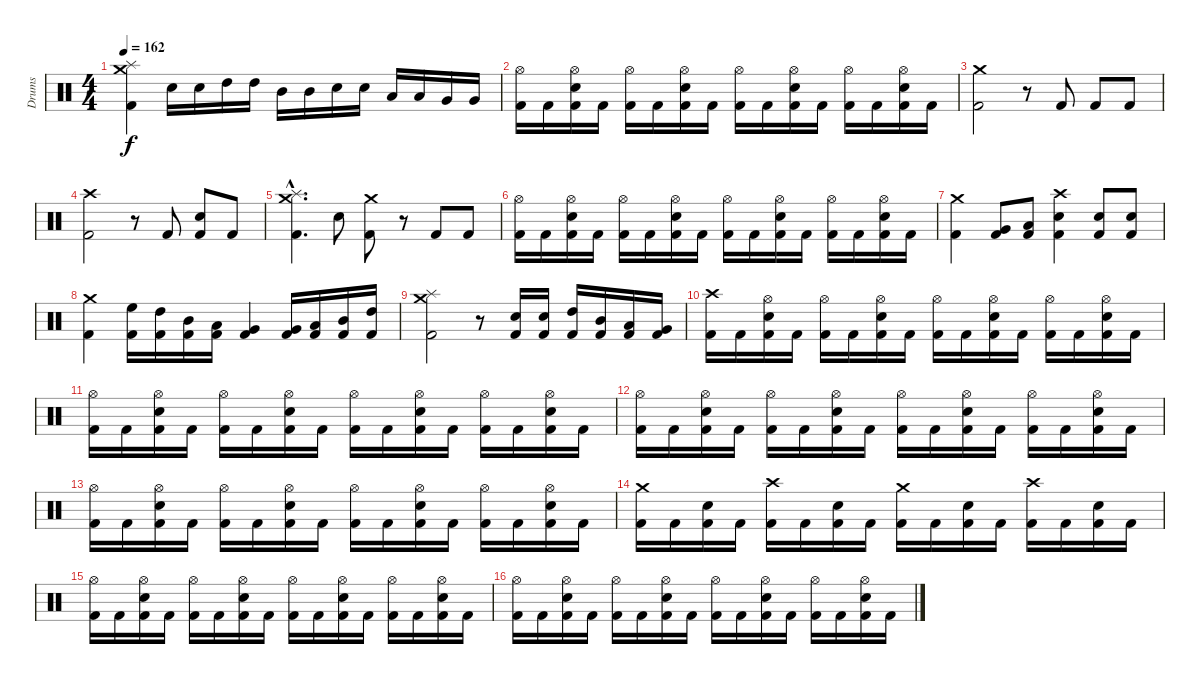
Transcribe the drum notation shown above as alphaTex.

\track ("Drums" "Drums") {instrument percussion}
\staff {score}
\articulation defaults
\ts (4 4)
\tempo 162
\clef neutral
\ks c
("Kick (hit) 2" "Crash medium (hit)" "Splash (hit)").4{dy f} "Snare (hit) 2".16 "Snare (hit) 2".16 "High Tom (hit)".16 "High Tom (hit)".16 "Mid Tom (hit)".16 "Mid Tom (hit)".16 "Snare (hit) 2".16 "Snare (hit) 2".16 "Low Tom (hit)".16 "Low Tom (hit)".16 "Very Low Tom (hit)".16 "Very Low Tom (hit)".16 |
("Kick (hit) 2" "Hi-Hat (open)").16 "Kick (hit) 2".16 ("Kick (hit) 2" "Snare (hit) 2" "Hi-Hat (open)").16 "Kick (hit) 2".16 ("Kick (hit) 2" "Hi-Hat (open)").16 "Kick (hit) 2".16 ("Kick (hit) 2" "Snare (hit) 2" "Hi-Hat (open)").16 "Kick (hit) 2".16 ("Kick (hit) 2" "Hi-Hat (open)").16 "Kick (hit) 2".16 ("Kick (hit) 2" "Snare (hit) 2" "Hi-Hat (open)").16 "Kick (hit) 2".16 ("Kick (hit) 2" "Hi-Hat (open)").16 "Kick (hit) 2".16 ("Kick (hit) 2" "Snare (hit) 2" "Hi-Hat (open)").16 "Kick (hit) 2".16 |
\section ("" "")
("Kick (hit) 2" "Crash medium (hit)").2 r.8 "Kick (hit) 2".8 "Kick (hit) 2".8 "Kick (hit) 2".8 |
("Kick (hit) 2" "Crash high (hit)").2 r.8 "Kick (hit) 2".8 ("Kick (hit) 2" "Snare (hit) 2").8 "Kick (hit) 2".8 |
("Kick (hit) 2"{hac} "Crash medium (hit)"{hac} "Splash (hit)"{hac}).4{d} "Snare (hit) 2".8 ("Kick (hit) 2" "Crash medium (hit)").8 r.8 "Kick (hit) 2".8 "Kick (hit) 2".8 |
("Kick (hit) 2" "Hi-Hat (open)").16 "Kick (hit) 2".16 ("Kick (hit) 2" "Snare (hit) 2" "Hi-Hat (open)").16 "Kick (hit) 2".16 ("Kick (hit) 2" "Hi-Hat (open)").16 "Kick (hit) 2".16 ("Kick (hit) 2" "Snare (hit) 2" "Hi-Hat (open)").16 "Kick (hit) 2".16 ("Kick (hit) 2" "Hi-Hat (open)").16 "Kick (hit) 2".16 ("Kick (hit) 2" "Snare (hit) 2" "Hi-Hat (open)").16 "Kick (hit) 2".16 ("Kick (hit) 2" "Hi-Hat (open)").16 "Kick (hit) 2".16 ("Kick (hit) 2" "Snare (hit) 2" "Hi-Hat (open)").16 "Kick (hit) 2".16 |
("Kick (hit) 2" "Crash medium (hit)").4 ("Kick (hit) 2" "Very Low Tom (hit)").8 ("Kick (hit) 2" "Low Floor Tom (hit)").8 ("Kick (hit) 2" "Snare (hit) 2" "Crash high (hit)").4 ("Kick (hit) 2" "Snare (hit) 2").8 ("Kick (hit) 2" "Snare (hit) 2").8 |
("Kick (hit) 2" "Crash medium (hit)").4 ("Kick (hit) 2" "High Floor Tom (hit)").16 ("Kick (hit) 2" "High Tom (hit)").16 ("Kick (hit) 2" "Mid Tom (hit)").16 ("Kick (hit) 2" "Low Tom (hit)").16 ("Kick (hit) 2" "Very Low Tom (hit)").4 ("Kick (hit) 2" "Very Low Tom (hit)").16 ("Kick (hit) 2" "Low Tom (hit)").16 ("Kick (hit) 2" "Mid Tom (hit)").16 ("Kick (hit) 2" "High Tom (hit)").16 |
("Kick (hit) 2" "Crash medium (hit)" "Splash (hit)").2 r.8 ("Kick (hit) 2" "Snare (hit) 2").16 ("Kick (hit) 2" "Snare (hit) 2").16 ("Kick (hit) 2" "High Tom (hit)").16 ("Kick (hit) 2" "Mid Tom (hit)").16 ("Kick (hit) 2" "Low Tom (hit)").16 ("Kick (hit) 2" "Very Low Tom (hit)").16 |
("Kick (hit) 2" "Crash high (hit)").16 "Kick (hit) 2".16 ("Kick (hit) 2" "Snare (hit) 2" "Hi-Hat (open)").16 "Kick (hit) 2".16 ("Kick (hit) 2" "Hi-Hat (open)").16 "Kick (hit) 2".16 ("Kick (hit) 2" "Snare (hit) 2" "Hi-Hat (open)").16 "Kick (hit) 2".16 ("Kick (hit) 2" "Hi-Hat (open)").16 "Kick (hit) 2".16 ("Kick (hit) 2" "Snare (hit) 2" "Hi-Hat (open)").16 "Kick (hit) 2".16 ("Kick (hit) 2" "Hi-Hat (open)").16 "Kick (hit) 2".16 ("Kick (hit) 2" "Snare (hit) 2" "Hi-Hat (open)").16 "Kick (hit) 2".16 |
\section ("" "")
("Kick (hit) 2" "Hi-Hat (open)").16 "Kick (hit) 2".16 ("Kick (hit) 2" "Snare (hit) 2" "Hi-Hat (open)").16 "Kick (hit) 2".16 ("Kick (hit) 2" "Hi-Hat (open)").16 "Kick (hit) 2".16 ("Kick (hit) 2" "Snare (hit) 2" "Hi-Hat (open)").16 "Kick (hit) 2".16 ("Kick (hit) 2" "Hi-Hat (open)").16 "Kick (hit) 2".16 ("Kick (hit) 2" "Snare (hit) 2" "Hi-Hat (open)").16 "Kick (hit) 2".16 ("Kick (hit) 2" "Hi-Hat (open)").16 "Kick (hit) 2".16 ("Kick (hit) 2" "Snare (hit) 2" "Hi-Hat (open)").16 "Kick (hit) 2".16 |
("Kick (hit) 2" "Hi-Hat (open)").16 "Kick (hit) 2".16 ("Kick (hit) 2" "Snare (hit) 2" "Hi-Hat (open)").16 "Kick (hit) 2".16 ("Kick (hit) 2" "Hi-Hat (open)").16 "Kick (hit) 2".16 ("Kick (hit) 2" "Snare (hit) 2" "Hi-Hat (open)").16 "Kick (hit) 2".16 ("Kick (hit) 2" "Hi-Hat (open)").16 "Kick (hit) 2".16 ("Kick (hit) 2" "Snare (hit) 2" "Hi-Hat (open)").16 "Kick (hit) 2".16 ("Kick (hit) 2" "Hi-Hat (open)").16 "Kick (hit) 2".16 ("Kick (hit) 2" "Snare (hit) 2" "Hi-Hat (open)").16 "Kick (hit) 2".16 |
("Kick (hit) 2" "Hi-Hat (open)").16 "Kick (hit) 2".16 ("Kick (hit) 2" "Snare (hit) 2" "Hi-Hat (open)").16 "Kick (hit) 2".16 ("Kick (hit) 2" "Hi-Hat (open)").16 "Kick (hit) 2".16 ("Kick (hit) 2" "Snare (hit) 2" "Hi-Hat (open)").16 "Kick (hit) 2".16 ("Kick (hit) 2" "Hi-Hat (open)").16 "Kick (hit) 2".16 ("Kick (hit) 2" "Snare (hit) 2" "Hi-Hat (open)").16 "Kick (hit) 2".16 ("Kick (hit) 2" "Hi-Hat (open)").16 "Kick (hit) 2".16 ("Kick (hit) 2" "Snare (hit) 2" "Hi-Hat (open)").16 "Kick (hit) 2".16 |
("Kick (hit) 2" "Crash medium (hit)").16 "Kick (hit) 2".16 ("Kick (hit) 2" "Snare (hit) 2").16 "Kick (hit) 2".16 ("Kick (hit) 2" "Crash high (hit)").16 "Kick (hit) 2".16 ("Kick (hit) 2" "Snare (hit) 2").16 "Kick (hit) 2".16 ("Kick (hit) 2" "Crash medium (hit)").16 "Kick (hit) 2".16 ("Kick (hit) 2" "Snare (hit) 2").16 "Kick (hit) 2".16 ("Kick (hit) 2" "Crash high (hit)").16 "Kick (hit) 2".16 ("Kick (hit) 2" "Snare (hit) 2").16 "Kick (hit) 2".16 |
("Kick (hit) 2" "Hi-Hat (open)").16 "Kick (hit) 2".16 ("Kick (hit) 2" "Snare (hit) 2" "Hi-Hat (open)").16 "Kick (hit) 2".16 ("Kick (hit) 2" "Hi-Hat (open)").16 "Kick (hit) 2".16 ("Kick (hit) 2" "Snare (hit) 2" "Hi-Hat (open)").16 "Kick (hit) 2".16 ("Kick (hit) 2" "Hi-Hat (open)").16 "Kick (hit) 2".16 ("Kick (hit) 2" "Snare (hit) 2" "Hi-Hat (open)").16 "Kick (hit) 2".16 ("Kick (hit) 2" "Hi-Hat (open)").16 "Kick (hit) 2".16 ("Kick (hit) 2" "Snare (hit) 2" "Hi-Hat (open)").16 "Kick (hit) 2".16 |
("Kick (hit) 2" "Hi-Hat (open)").16 "Kick (hit) 2".16 ("Kick (hit) 2" "Snare (hit) 2" "Hi-Hat (open)").16 "Kick (hit) 2".16 ("Kick (hit) 2" "Hi-Hat (open)").16 "Kick (hit) 2".16 ("Kick (hit) 2" "Snare (hit) 2" "Hi-Hat (open)").16 "Kick (hit) 2".16 ("Kick (hit) 2" "Hi-Hat (open)").16 "Kick (hit) 2".16 ("Kick (hit) 2" "Snare (hit) 2" "Hi-Hat (open)").16 "Kick (hit) 2".16 ("Kick (hit) 2" "Hi-Hat (open)").16 "Kick (hit) 2".16 ("Kick (hit) 2" "Snare (hit) 2" "Hi-Hat (open)").16 "Kick (hit) 2".16
